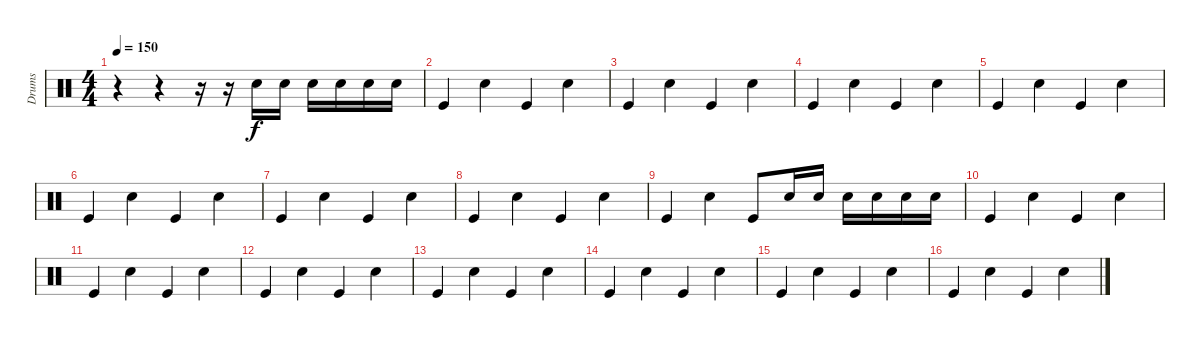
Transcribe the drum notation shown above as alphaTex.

\track ("Drums" "Drums") {instrument percussion}
\staff {score}
\articulation defaults
\ts (4 4)
\tempo 150
\clef neutral
\ks c
r.4{dy f} r.4 r.16 r.16 "Snare (hit) 2".16 "Snare (hit) 2".16 "Snare (hit) 2".16 "Snare (hit) 2".16 "Snare (hit) 2".16 "Snare (hit) 2".16 |
"Kick (hit)".4 "Snare (hit) 2".4 "Kick (hit)".4 "Snare (hit) 2".4 |
"Kick (hit)".4 "Snare (hit) 2".4 "Kick (hit)".4 "Snare (hit) 2".4 |
"Kick (hit)".4 "Snare (hit) 2".4 "Kick (hit)".4 "Snare (hit) 2".4 |
"Kick (hit)".4 "Snare (hit) 2".4 "Kick (hit)".4 "Snare (hit) 2".4 |
"Kick (hit)".4 "Snare (hit) 2".4 "Kick (hit)".4 "Snare (hit) 2".4 |
"Kick (hit)".4 "Snare (hit) 2".4 "Kick (hit)".4 "Snare (hit) 2".4 |
"Kick (hit)".4 "Snare (hit) 2".4 "Kick (hit)".4 "Snare (hit) 2".4 |
"Kick (hit)".4 "Snare (hit) 2".4 "Kick (hit)".8 "Snare (hit) 2".16 "Snare (hit) 2".16 "Snare (hit) 2".16 "Snare (hit) 2".16 "Snare (hit) 2".16 "Snare (hit) 2".16 |
"Kick (hit)".4 "Snare (hit) 2".4 "Kick (hit)".4 "Snare (hit) 2".4 |
"Kick (hit)".4 "Snare (hit) 2".4 "Kick (hit)".4 "Snare (hit) 2".4 |
"Kick (hit)".4 "Snare (hit) 2".4 "Kick (hit)".4 "Snare (hit) 2".4 |
"Kick (hit)".4 "Snare (hit) 2".4 "Kick (hit)".4 "Snare (hit) 2".4 |
"Kick (hit)".4 "Snare (hit) 2".4 "Kick (hit)".4 "Snare (hit) 2".4 |
"Kick (hit)".4 "Snare (hit) 2".4 "Kick (hit)".4 "Snare (hit) 2".4 |
"Kick (hit)".4 "Snare (hit) 2".4 "Kick (hit)".4 "Snare (hit) 2".4
